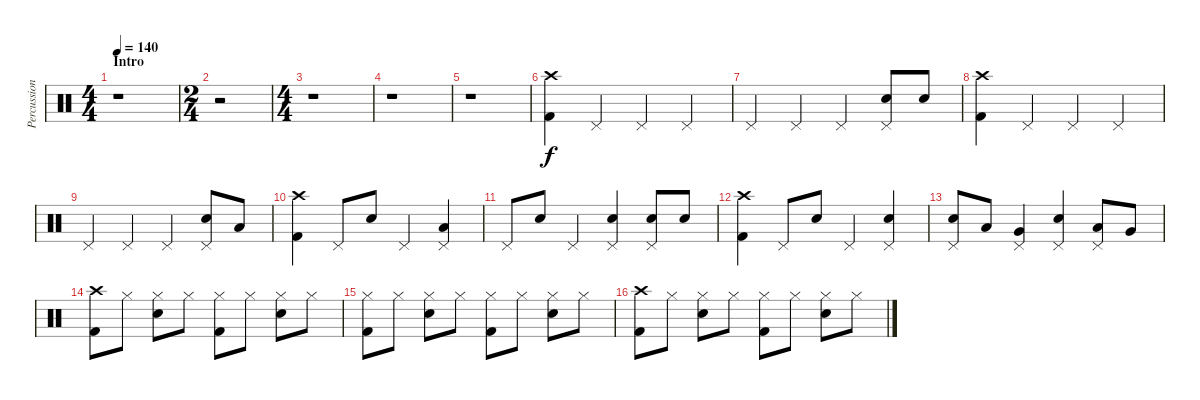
\track ("Percussion" "Percussion") {instrument percussion}
\staff {score}
\articulation defaults
\ts (4 4)
\section ("" "Intro")
\tempo 140
\clef neutral
\ks c
r.1{dy f} |
\ts (2 4)
r.2 |
\ts (4 4)
r.1 |
r.1 |
r.1 |
("Crash high (hit)" "Kick (hit) 2").4 "Pedal Hi-Hat (hit)".4 "Pedal Hi-Hat (hit)".4 "Pedal Hi-Hat (hit)".4 |
"Pedal Hi-Hat (hit)".4 "Pedal Hi-Hat (hit)".4 "Pedal Hi-Hat (hit)".4 ("Pedal Hi-Hat (hit)" "Electric Snare (hit)").8 "Electric Snare (hit)".8 |
("Crash high (hit)" "Kick (hit) 2").4 "Pedal Hi-Hat (hit)".4 "Pedal Hi-Hat (hit)".4 "Pedal Hi-Hat (hit)".4 |
"Pedal Hi-Hat (hit)".4 "Pedal Hi-Hat (hit)".4 "Pedal Hi-Hat (hit)".4 ("Pedal Hi-Hat (hit)" "Electric Snare (hit)").8 "Low Tom (hit)".8 |
("Crash high (hit)" "Kick (hit) 2").4 "Pedal Hi-Hat (hit)".8 "Electric Snare (hit)".8 "Pedal Hi-Hat (hit)".4 ("Low Tom (hit)" "Pedal Hi-Hat (hit)").4 |
"Pedal Hi-Hat (hit)".8 "Electric Snare (hit)".8 "Pedal Hi-Hat (hit)".4 ("Pedal Hi-Hat (hit)" "Electric Snare (hit)").4 ("Pedal Hi-Hat (hit)" "Electric Snare (hit)").8 "Electric Snare (hit)".8 |
("Crash high (hit)" "Kick (hit) 2").4 "Pedal Hi-Hat (hit)".8 "Electric Snare (hit)".8 "Pedal Hi-Hat (hit)".4 ("Pedal Hi-Hat (hit)" "Electric Snare (hit)").4 |
("Pedal Hi-Hat (hit)" "Electric Snare (hit)").8 "Low Tom (hit)".8 ("Very Low Tom (hit)" "Pedal Hi-Hat (hit)").4 ("Pedal Hi-Hat (hit)" "Electric Snare (hit)").4 ("Low Tom (hit)" "Pedal Hi-Hat (hit)").8 "Very Low Tom (hit)".8 |
("Crash high (hit)" "Kick (hit) 2").8 "Hi-Hat (closed)".8 ("Hi-Hat (closed)" "Electric Snare (hit)").8 "Hi-Hat (closed)".8 ("Hi-Hat (closed)" "Kick (hit) 2").8 "Hi-Hat (closed)".8 ("Hi-Hat (closed)" "Electric Snare (hit)").8 "Hi-Hat (closed)".8 |
("Hi-Hat (closed)" "Kick (hit) 2").8 "Hi-Hat (closed)".8 ("Hi-Hat (closed)" "Electric Snare (hit)").8 "Hi-Hat (closed)".8 ("Hi-Hat (closed)" "Kick (hit) 2").8 "Hi-Hat (closed)".8 ("Hi-Hat (closed)" "Electric Snare (hit)").8 "Hi-Hat (closed)".8 |
("Crash high (hit)" "Kick (hit) 2").8 "Hi-Hat (closed)".8 ("Hi-Hat (closed)" "Electric Snare (hit)").8 "Hi-Hat (closed)".8 ("Hi-Hat (closed)" "Kick (hit) 2").8 "Hi-Hat (closed)".8 ("Hi-Hat (closed)" "Electric Snare (hit)").8 "Hi-Hat (closed)".8
